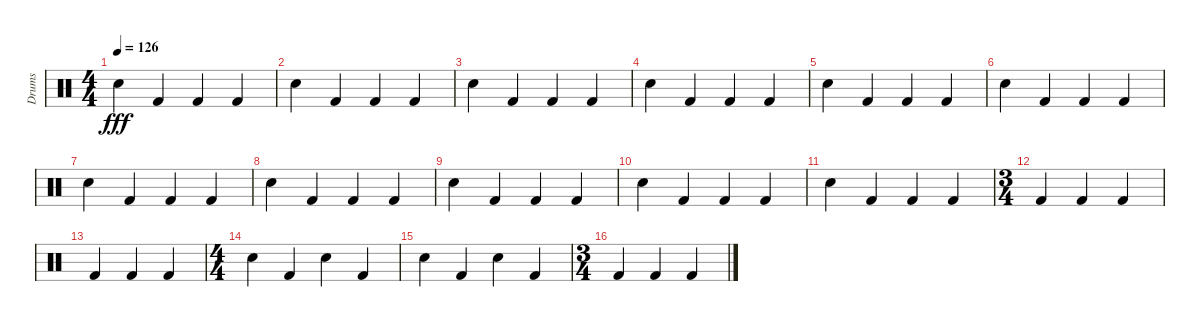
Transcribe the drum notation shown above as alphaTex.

\track ("Drums" "Drums") {instrument percussion}
\staff {score}
\articulation defaults
\ts (4 4)
\tempo 126
\clef neutral
\ks c "Snare (hit) 2".4{dy fff} "Kick (hit) 2".4 "Kick (hit) 2".4 "Kick (hit) 2".4
|
"Snare (hit) 2".4 "Kick (hit) 2".4 "Kick (hit) 2".4 "Kick (hit) 2".4 |
"Snare (hit) 2".4 "Kick (hit) 2".4 "Kick (hit) 2".4 "Kick (hit) 2".4 |
"Snare (hit) 2".4 "Kick (hit) 2".4 "Kick (hit) 2".4 "Kick (hit) 2".4 |
"Snare (hit) 2".4 "Kick (hit) 2".4 "Kick (hit) 2".4 "Kick (hit) 2".4 |
"Snare (hit) 2".4 "Kick (hit) 2".4 "Kick (hit) 2".4 "Kick (hit) 2".4 |
"Snare (hit) 2".4 "Kick (hit) 2".4 "Kick (hit) 2".4 "Kick (hit) 2".4 |
"Snare (hit) 2".4 "Kick (hit) 2".4 "Kick (hit) 2".4 "Kick (hit) 2".4 |
"Snare (hit) 2".4 "Kick (hit) 2".4 "Kick (hit) 2".4 "Kick (hit) 2".4 |
"Snare (hit) 2".4 "Kick (hit) 2".4 "Kick (hit) 2".4 "Kick (hit) 2".4 |
"Snare (hit) 2".4 "Kick (hit) 2".4 "Kick (hit) 2".4 "Kick (hit) 2".4 |
\ts (3 4)
"Kick (hit) 2".4 "Kick (hit) 2".4 "Kick (hit) 2".4 |
"Kick (hit) 2".4 "Kick (hit) 2".4 "Kick (hit) 2".4 |
\ts (4 4)
"Snare (hit) 2".4 "Kick (hit) 2".4 "Snare (hit) 2".4 "Kick (hit) 2".4 |
"Snare (hit) 2".4 "Kick (hit) 2".4 "Snare (hit) 2".4 "Kick (hit) 2".4 |
\ts (3 4)
"Kick (hit) 2".4 "Kick (hit) 2".4 "Kick (hit) 2".4
